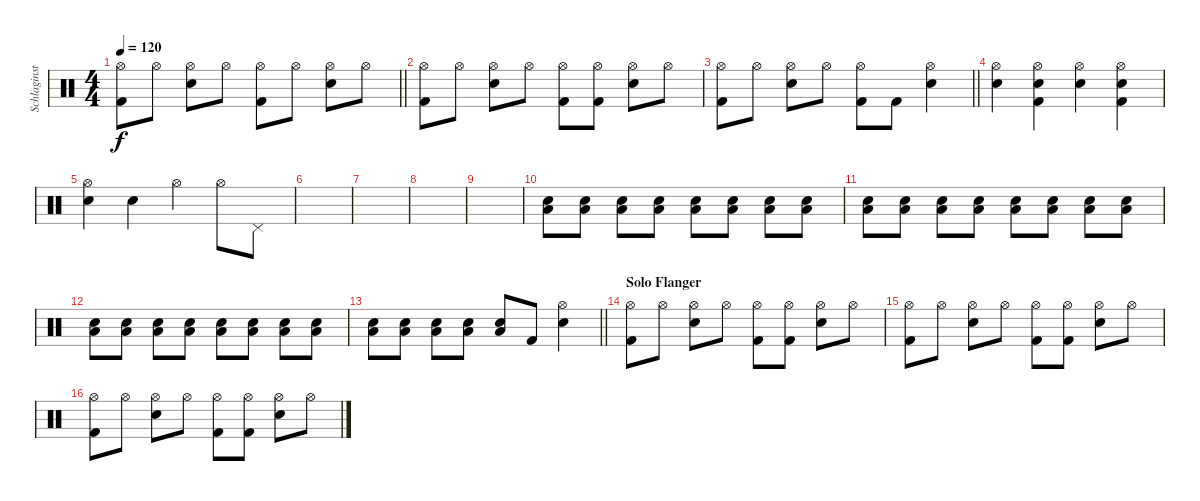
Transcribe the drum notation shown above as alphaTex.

\track ("Schlaginstrumente - Auswahl" "Schlaginst") {instrument percussion}
\staff {score}
\articulation defaults
\ts (4 4)
\tempo 120
\clef neutral
\barLineRight lightlight
\ks c
("Hi-Hat (open)" "Kick (hit) 2").8{dy f} "Hi-Hat (open)".8 ("Hi-Hat (open)" "Electric Snare (hit)").8 "Hi-Hat (open)".8 ("Hi-Hat (open)" "Kick (hit) 2").8 "Hi-Hat (open)".8 ("Hi-Hat (open)" "Electric Snare (hit)").8 "Hi-Hat (open)".8 |
("Hi-Hat (open)" "Kick (hit) 2").8 "Hi-Hat (open)".8 ("Hi-Hat (open)" "Electric Snare (hit)").8 "Hi-Hat (open)".8 ("Hi-Hat (open)" "Kick (hit) 2").8 ("Hi-Hat (open)" "Kick (hit) 2").8 ("Hi-Hat (open)" "Electric Snare (hit)").8 "Hi-Hat (open)".8 |
\barLineRight lightlight
("Hi-Hat (open)" "Kick (hit) 2").8 "Hi-Hat (open)".8 ("Hi-Hat (open)" "Electric Snare (hit)").8 "Hi-Hat (open)".8 ("Hi-Hat (open)" "Kick (hit) 2").8 "Kick (hit) 2".8 ("Hi-Hat (open)" "Electric Snare (hit)").4 |
("Hi-Hat (open)" "Electric Snare (hit)").4 ("Hi-Hat (open)" "Electric Snare (hit)" "Kick (hit) 2").4 ("Hi-Hat (open)" "Electric Snare (hit)").4 ("Hi-Hat (open)" "Electric Snare (hit)" "Kick (hit) 2").4 |
("Hi-Hat (open)" "Electric Snare (hit)").4 "Electric Snare (hit)".4 "Hi-Hat (open)".4 "Hi-Hat (open)".8 "Pedal Hi-Hat (hit)".8 |
|
|
|
|
("Low Floor Tom (hit)" "Electric Snare (hit)").8 ("Low Floor Tom (hit)" "Electric Snare (hit)").8 ("Low Floor Tom (hit)" "Electric Snare (hit)").8 ("Low Floor Tom (hit)" "Electric Snare (hit)").8 ("Low Floor Tom (hit)" "Electric Snare (hit)").8 ("Low Floor Tom (hit)" "Electric Snare (hit)").8 ("Low Floor Tom (hit)" "Electric Snare (hit)").8 ("Low Floor Tom (hit)" "Electric Snare (hit)").8 |
("Low Floor Tom (hit)" "Electric Snare (hit)").8 ("Low Floor Tom (hit)" "Electric Snare (hit)").8 ("Low Floor Tom (hit)" "Electric Snare (hit)").8 ("Low Floor Tom (hit)" "Electric Snare (hit)").8 ("Low Floor Tom (hit)" "Electric Snare (hit)").8 ("Low Floor Tom (hit)" "Electric Snare (hit)").8 ("Low Floor Tom (hit)" "Electric Snare (hit)").8 ("Low Floor Tom (hit)" "Electric Snare (hit)").8 |
("Low Floor Tom (hit)" "Electric Snare (hit)").8 ("Low Floor Tom (hit)" "Electric Snare (hit)").8 ("Low Floor Tom (hit)" "Electric Snare (hit)").8 ("Low Floor Tom (hit)" "Electric Snare (hit)").8 ("Low Floor Tom (hit)" "Electric Snare (hit)").8 ("Low Floor Tom (hit)" "Electric Snare (hit)").8 ("Low Floor Tom (hit)" "Electric Snare (hit)").8 ("Low Floor Tom (hit)" "Electric Snare (hit)").8 |
\barLineRight lightlight
("Low Floor Tom (hit)" "Electric Snare (hit)").8 ("Low Floor Tom (hit)" "Electric Snare (hit)").8 ("Low Floor Tom (hit)" "Electric Snare (hit)").8 ("Low Floor Tom (hit)" "Electric Snare (hit)").8 ("Low Floor Tom (hit)" "Electric Snare (hit)").8 "Kick (hit) 2".8 ("Hi-Hat (open)" "Electric Snare (hit)").4 |
\section ("" "Solo Flanger")
("Hi-Hat (open)" "Kick (hit) 2").8 "Hi-Hat (open)".8 ("Hi-Hat (open)" "Electric Snare (hit)").8 "Hi-Hat (open)".8 ("Hi-Hat (open)" "Kick (hit) 2").8 ("Hi-Hat (open)" "Kick (hit) 2").8 ("Hi-Hat (open)" "Electric Snare (hit)").8 "Hi-Hat (open)".8 |
("Hi-Hat (open)" "Kick (hit) 2").8 "Hi-Hat (open)".8 ("Hi-Hat (open)" "Electric Snare (hit)").8 "Hi-Hat (open)".8 ("Hi-Hat (open)" "Kick (hit) 2").8 ("Hi-Hat (open)" "Kick (hit) 2").8 ("Hi-Hat (open)" "Electric Snare (hit)").8 "Hi-Hat (open)".8 |
("Hi-Hat (open)" "Kick (hit) 2").8 "Hi-Hat (open)".8 ("Hi-Hat (open)" "Electric Snare (hit)").8 "Hi-Hat (open)".8 ("Hi-Hat (open)" "Kick (hit) 2").8 ("Hi-Hat (open)" "Kick (hit) 2").8 ("Hi-Hat (open)" "Electric Snare (hit)").8 "Hi-Hat (open)".8
